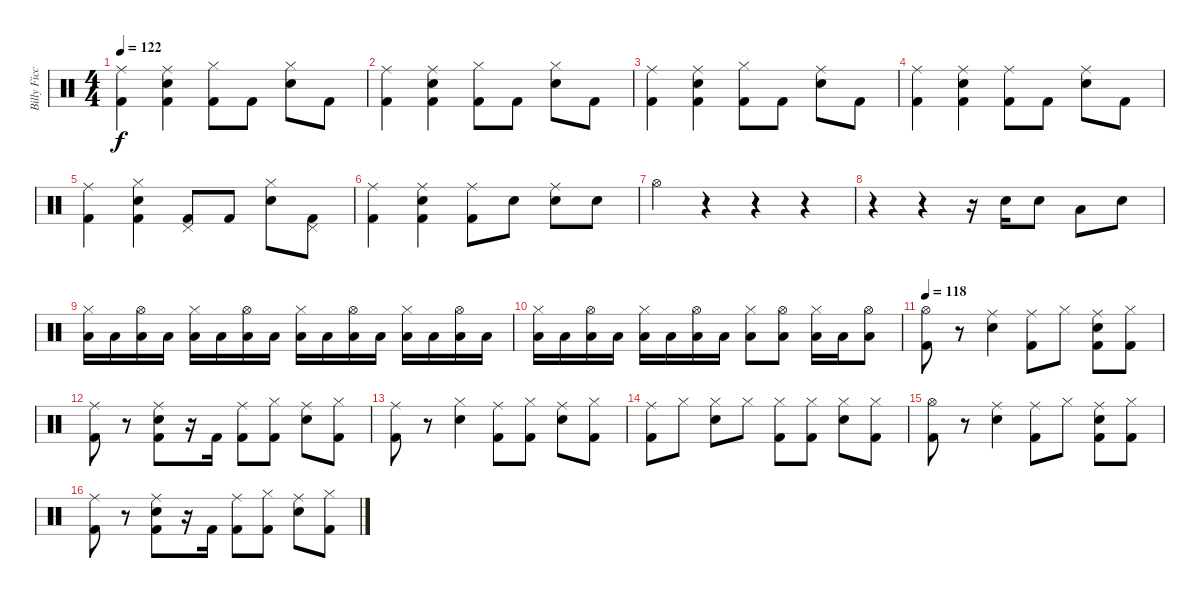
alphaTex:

\track ("Billy Ficca" "Billy Ficc") {instrument percussion}
\staff {score}
\articulation defaults
\ts (4 4)
\tempo 122
\clef neutral
\ks c
("Ride (middle)" "Kick (hit) 2").4{dy f} ("Ride (middle)" "Electric Snare (hit)" "Kick (hit) 2").4 ("Hi-Hat (closed)" "Kick (hit) 2").8 "Kick (hit) 2".8 ("Hi-Hat (closed)" "Electric Snare (hit)").8 "Kick (hit) 2".8 |
("Ride (middle)" "Kick (hit) 2").4 ("Ride (middle)" "Electric Snare (hit)" "Kick (hit) 2").4 ("Hi-Hat (closed)" "Kick (hit) 2").8 "Kick (hit) 2".8 ("Hi-Hat (closed)" "Electric Snare (hit)").8 "Kick (hit) 2".8 |
("Ride (middle)" "Kick (hit) 2").4 ("Ride (middle)" "Electric Snare (hit)" "Kick (hit) 2").4 ("Hi-Hat (closed)" "Kick (hit) 2").8 "Kick (hit) 2".8 ("Ride (middle)" "Electric Snare (hit)").8 "Kick (hit) 2".8 |
("Ride (middle)" "Kick (hit) 2").4 ("Ride (middle)" "Electric Snare (hit)" "Kick (hit) 2").4 ("Ride (middle)" "Kick (hit) 2").8 "Kick (hit) 2".8 ("Ride (middle)" "Electric Snare (hit)").8 "Kick (hit) 2".8 |
("Ride (middle)" "Kick (hit) 2").4 ("Hi-Hat (closed)" "Electric Snare (hit)" "Kick (hit) 2").4 ("Pedal Hi-Hat (hit)" "Kick (hit) 2").8 "Kick (hit) 2".8 ("Hi-Hat (closed)" "Electric Snare (hit)").8 ("Pedal Hi-Hat (hit)" "Kick (hit) 2").8 |
("Ride (middle)" "Kick (hit) 2").4 ("Ride (middle)" "Electric Snare (hit)" "Kick (hit) 2").4 ("Ride (middle)" "Kick (hit) 2").8 "Electric Snare (hit)".8 ("Ride (middle)" "Electric Snare (hit)").8 "Electric Snare (hit)".8 |
"Hi-Hat (open)".4 r.4 r.4 r.4 |
r.4 r.4 r.16 "Electric Snare (hit)".16 "Electric Snare (hit)".8 "Low Floor Tom (hit)".8 "Electric Snare (hit)".8 |
("Hi-Hat (closed)" "Low Tom (hit)").16 "Low Tom (hit)".16 ("Hi-Hat (open)" "Low Tom (hit)").16 "Low Tom (hit)".16 ("Hi-Hat (closed)" "Low Tom (hit)").16 "Low Tom (hit)".16 ("Hi-Hat (open)" "Low Tom (hit)").16 "Low Tom (hit)".16 ("Hi-Hat (closed)" "Low Tom (hit)").16 "Low Tom (hit)".16 ("Hi-Hat (open)" "Low Tom (hit)").16 "Low Tom (hit)".16 ("Hi-Hat (closed)" "Low Tom (hit)").16 "Low Tom (hit)".16 ("Hi-Hat (open)" "Low Tom (hit)").16 "Low Tom (hit)".16 |
("Hi-Hat (closed)" "Low Tom (hit)").16 "Low Tom (hit)".16 ("Hi-Hat (open)" "Low Tom (hit)").16 "Low Tom (hit)".16 ("Hi-Hat (closed)" "Low Tom (hit)").16 "Low Tom (hit)".16 ("Hi-Hat (open)" "Low Tom (hit)").16 "Low Tom (hit)".16 ("Hi-Hat (closed)" "Low Tom (hit)").8 ("Hi-Hat (open)" "Low Tom (hit)").8 ("Hi-Hat (closed)" "Low Tom (hit)").16 "Low Tom (hit)".16 ("Hi-Hat (open)" "Low Tom (hit)").8 |
\tempo 118
("Hi-Hat (open)" "Kick (hit) 2").8 r.8 ("Ride (middle)" "Snare (hit) 2").4 ("Ride (middle)" "Kick (hit) 2").8 "Hi-Hat (closed)".8 ("Ride (middle)" "Snare (hit) 2" "Kick (hit) 2").8 ("Hi-Hat (closed)" "Kick (hit) 2").8 |
("Ride (middle)" "Kick (hit) 2").8 r.8 ("Ride (middle)" "Snare (hit) 2" "Kick (hit) 2").8 r.16 "Kick (hit) 2".16 ("Ride (middle)" "Kick (hit) 2").8 ("Hi-Hat (closed)" "Kick (hit) 2").8 ("Ride (middle)" "Snare (hit) 2").8 ("Hi-Hat (closed)" "Kick (hit) 2").8 |
("Ride (middle)" "Kick (hit) 2").8 r.8 ("Hi-Hat (closed)" "Snare (hit) 2").4 ("Ride (middle)" "Kick (hit) 2").8 ("Hi-Hat (closed)" "Kick (hit) 2").8 ("Ride (middle)" "Snare (hit) 2").8 ("Hi-Hat (closed)" "Kick (hit) 2").8 |
("Ride (middle)" "Kick (hit) 2").8 "Hi-Hat (closed)".8 ("Hi-Hat (closed)" "Snare (hit) 2").8 "Hi-Hat (closed)".8 ("Hi-Hat (closed)" "Kick (hit) 2").8 ("Hi-Hat (closed)" "Kick (hit) 2").8 ("Hi-Hat (closed)" "Snare (hit) 2").8 ("Hi-Hat (closed)" "Kick (hit) 2").8 |
("Hi-Hat (open)" "Kick (hit) 2").8 r.8 ("Ride (middle)" "Snare (hit) 2").4 ("Ride (middle)" "Kick (hit) 2").8 "Hi-Hat (closed)".8 ("Ride (middle)" "Snare (hit) 2" "Kick (hit) 2").8 ("Hi-Hat (closed)" "Kick (hit) 2").8 |
("Ride (middle)" "Kick (hit) 2").8 r.8 ("Ride (middle)" "Snare (hit) 2" "Kick (hit) 2").8 r.16 "Kick (hit) 2".16 ("Ride (middle)" "Kick (hit) 2").8 ("Hi-Hat (closed)" "Kick (hit) 2").8 ("Ride (middle)" "Snare (hit) 2").8 ("Hi-Hat (closed)" "Kick (hit) 2").8
